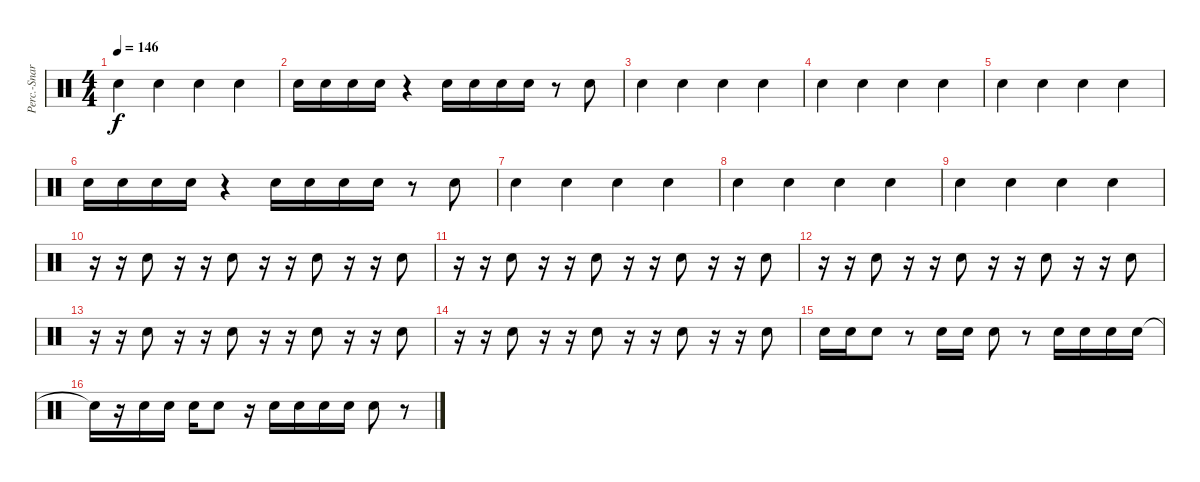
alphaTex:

\track ("Perc.-Snare" "Perc.-Snar") {instrument percussion}
\staff {score}
\articulation defaults
\ts (4 4)
\tempo 146
\clef neutral
\ks c "Snare (hit) 2".4{dy f} "Snare (hit) 2".4 "Snare (hit) 2".4 "Snare (hit) 2".4
|
"Snare (hit) 2".16 "Snare (hit) 2".16 "Snare (hit) 2".16 "Snare (hit) 2".16 r.4 "Snare (hit) 2".16 "Snare (hit) 2".16 "Snare (hit) 2".16 "Snare (hit) 2".16 r.8 "Snare (hit) 2".8 |
"Snare (hit) 2".4 "Snare (hit) 2".4 "Snare (hit) 2".4 "Snare (hit) 2".4 |
"Snare (hit) 2".4 "Snare (hit) 2".4 "Snare (hit) 2".4 "Snare (hit) 2".4 |
"Snare (hit) 2".4 "Snare (hit) 2".4 "Snare (hit) 2".4 "Snare (hit) 2".4 |
"Snare (hit) 2".16 "Snare (hit) 2".16 "Snare (hit) 2".16 "Snare (hit) 2".16 r.4 "Snare (hit) 2".16 "Snare (hit) 2".16 "Snare (hit) 2".16 "Snare (hit) 2".16 r.8 "Snare (hit) 2".8 |
"Snare (hit) 2".4 "Snare (hit) 2".4 "Snare (hit) 2".4 "Snare (hit) 2".4 |
"Snare (hit) 2".4 "Snare (hit) 2".4 "Snare (hit) 2".4 "Snare (hit) 2".4 |
"Snare (hit) 2".4 "Snare (hit) 2".4 "Snare (hit) 2".4 "Snare (hit) 2".4 |
r.16 r.16 "Snare (hit) 2".8 r.16 r.16 "Snare (hit) 2".8 r.16 r.16 "Snare (hit) 2".8 r.16 r.16 "Snare (hit) 2".8 |
r.16 r.16 "Snare (hit) 2".8 r.16 r.16 "Snare (hit) 2".8 r.16 r.16 "Snare (hit) 2".8 r.16 r.16 "Snare (hit) 2".8 |
r.16 r.16 "Snare (hit) 2".8 r.16 r.16 "Snare (hit) 2".8 r.16 r.16 "Snare (hit) 2".8 r.16 r.16 "Snare (hit) 2".8 |
r.16 r.16 "Snare (hit) 2".8 r.16 r.16 "Snare (hit) 2".8 r.16 r.16 "Snare (hit) 2".8 r.16 r.16 "Snare (hit) 2".8 |
r.16 r.16 "Snare (hit) 2".8 r.16 r.16 "Snare (hit) 2".8 r.16 r.16 "Snare (hit) 2".8 r.16 r.16 "Snare (hit) 2".8 |
"Snare (hit) 2".16 "Snare (hit) 2".16 "Snare (hit) 2".8 r.8 "Snare (hit) 2".16 "Snare (hit) 2".16 "Snare (hit) 2".8 r.8 "Snare (hit) 2".16 "Snare (hit) 2".16 "Snare (hit) 2".16 "Snare (hit) 2".16 |
"Snare (hit)"{t}.16 r.16 "Snare (hit) 2".16 "Snare (hit) 2".16 "Snare (hit) 2".16 "Snare (hit) 2".8 r.16 "Snare (hit) 2".16 "Snare (hit) 2".16 "Snare (hit) 2".16 "Snare (hit) 2".16 "Snare (hit) 2".8 r.8
